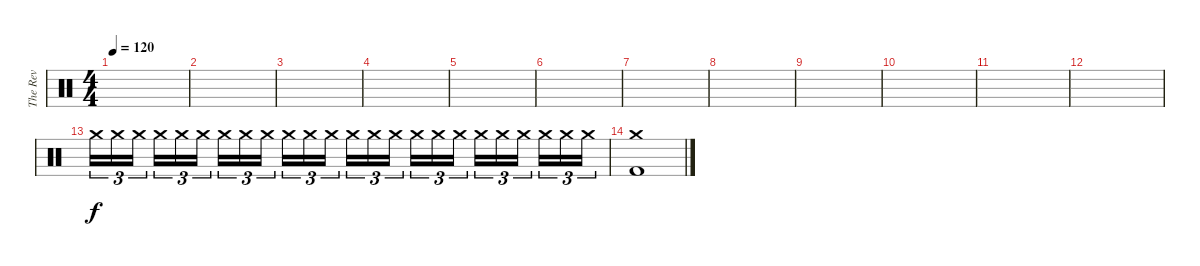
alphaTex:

\track ("The Rev" "The Rev") {instrument percussion}
\staff {score}
\articulation defaults
\ts (4 4)
\tempo 120
\clef neutral
\ks c
|
|
|
|
|
|
|
|
|
|
|
|
"Crash medium (hit)".16{tu (3 2)} "Crash medium (hit)".16{tu (3 2)} "Crash medium (hit)".16{tu (3 2) beam splitsecondary} "Crash medium (hit)".16{tu (3 2)} "Crash medium (hit)".16{tu (3 2)} "Crash medium (hit)".16{tu (3 2)} "Crash medium (hit)".16{tu (3 2)} "Crash medium (hit)".16{tu (3 2)} "Crash medium (hit)".16{tu (3 2) beam splitsecondary} "Crash medium (hit)".16{tu (3 2)} "Crash medium (hit)".16{tu (3 2) volume 16} "Crash medium (hit)".16{tu (3 2)} "Crash medium (hit)".16{tu (3 2)} "Crash medium (hit)".16{tu (3 2)} "Crash medium (hit)".16{tu (3 2) beam splitsecondary} "Crash medium (hit)".16{tu (3 2)} "Crash medium (hit)".16{tu (3 2)} "Crash medium (hit)".16{tu (3 2)} "Crash medium (hit)".16{tu (3 2)} "Crash medium (hit)".16{tu (3 2)} "Crash medium (hit)".16{tu (3 2) beam splitsecondary} "Crash medium (hit)".16{tu (3 2)} "Crash medium (hit)".16{tu (3 2)} "Crash medium (hit)".16{tu (3 2)} |
("Crash medium (hit)" "Kick (hit) 2").1{dy f}
